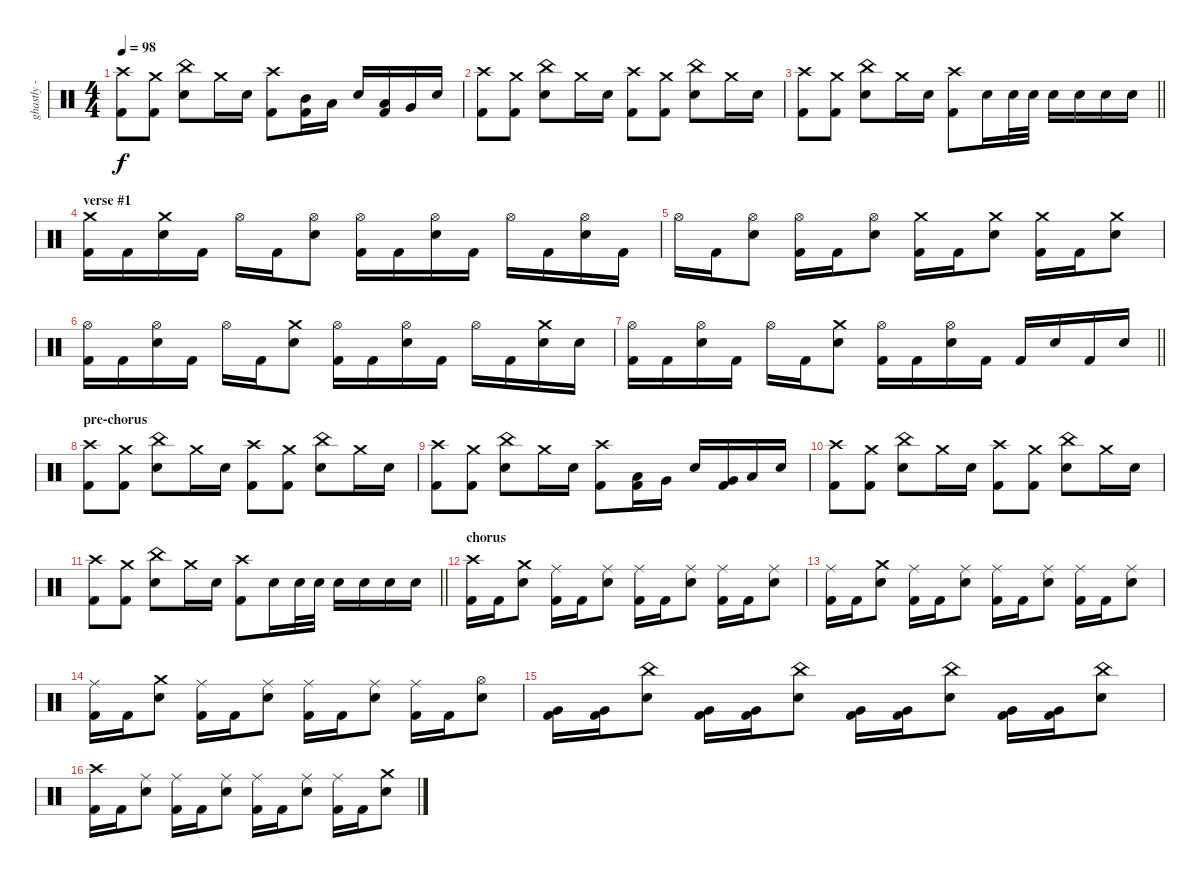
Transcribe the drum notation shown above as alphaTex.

\track ("ghastly - drums" "ghastly - ") {instrument percussion}
\staff {score}
\articulation defaults
\ts (4 4)
\tempo 98
\clef neutral
\ks c
("Crash high (hit)" "Kick (hit) 2").8{dy f} ("Crash medium (hit)" "Kick (hit) 2").8 ("China (hit)" "Electric Snare (hit)").8 "Crash medium (hit)".16 "Electric Snare (hit)".16 ("Crash high (hit)" "Kick (hit) 2").8 ("Mid Tom (hit)" "Kick (hit) 2").16 "Low Tom (hit)".16 "Electric Snare (hit)".16 ("Low Tom (hit)" "Kick (hit) 2").16 "Very Low Tom (hit)".16 "Electric Snare (hit)".16 |
("Crash high (hit)" "Kick (hit) 2").8 ("Crash medium (hit)" "Kick (hit) 2").8 ("China (hit)" "Electric Snare (hit)").8 "Crash medium (hit)".16 "Electric Snare (hit)".16 ("Crash high (hit)" "Kick (hit) 2").8 ("Crash medium (hit)" "Kick (hit) 2").8 ("China (hit)" "Electric Snare (hit)").8 "Crash medium (hit)".16 "Electric Snare (hit)".16 |
\barLineRight lightlight
("Crash high (hit)" "Kick (hit) 2").8 ("Crash medium (hit)" "Kick (hit) 2").8 ("China (hit)" "Electric Snare (hit)").8 "Crash medium (hit)".16 "Electric Snare (hit)".16 ("Crash high (hit)" "Kick (hit) 2").8 "Electric Snare (hit)".16 "Electric Snare (hit)".32 "Electric Snare (hit)".32 "Electric Snare (hit)".16 "Electric Snare (hit)".16 "Electric Snare (hit)".16 "Electric Snare (hit)".16 |
\section ("" "verse #1")
("Crash medium (hit)" "Kick (hit) 2").16 "Kick (hit) 2".16 ("Crash medium (hit)" "Electric Snare (hit)").16 "Kick (hit) 2".16 "Hi-Hat (open)".16 "Kick (hit) 2".16 ("Hi-Hat (open)" "Electric Snare (hit)").8 ("Hi-Hat (open)" "Kick (hit) 2").16 "Kick (hit) 2".16 ("Hi-Hat (open)" "Electric Snare (hit)").16 "Kick (hit) 2".16 "Hi-Hat (open)".16 "Kick (hit) 2".16 ("Hi-Hat (open)" "Electric Snare (hit)").16 "Kick (hit) 2".16 |
"Hi-Hat (open)".16 "Kick (hit) 2".16 ("Hi-Hat (open)" "Electric Snare (hit)").8 ("Hi-Hat (open)" "Kick (hit) 2").16 "Kick (hit) 2".16 ("Hi-Hat (open)" "Electric Snare (hit)").8 ("Crash medium (hit)" "Kick (hit) 2").16 "Kick (hit) 2".16 ("Crash medium (hit)" "Electric Snare (hit)").8 ("Crash medium (hit)" "Kick (hit) 2").16 "Kick (hit) 2".16 ("Crash medium (hit)" "Electric Snare (hit)").8 |
("Hi-Hat (open)" "Kick (hit) 2").16 "Kick (hit) 2".16 ("Hi-Hat (open)" "Electric Snare (hit)").16 "Kick (hit) 2".16 "Hi-Hat (open)".16 "Kick (hit) 2".16 ("Crash medium (hit)" "Electric Snare (hit)").8 ("Hi-Hat (open)" "Kick (hit) 2").16 "Kick (hit) 2".16 ("Hi-Hat (open)" "Electric Snare (hit)").16 "Kick (hit) 2".16 "Hi-Hat (open)".16 "Kick (hit) 2".16 ("Crash medium (hit)" "Electric Snare (hit)").16 "Electric Snare (hit)".16 |
\barLineRight lightlight
("Hi-Hat (open)" "Kick (hit) 2").16 "Kick (hit) 2".16 ("Hi-Hat (open)" "Electric Snare (hit)").16 "Kick (hit) 2".16 "Hi-Hat (open)".16 "Kick (hit) 2".16 ("Crash medium (hit)" "Electric Snare (hit)").8 ("Hi-Hat (open)" "Kick (hit) 2").16 "Kick (hit) 2".16 ("Hi-Hat (open)" "Electric Snare (hit)").16 "Kick (hit) 2".16 "Kick (hit) 2".16 "Electric Snare (hit)".16 "Kick (hit) 2".16 "Electric Snare (hit)".16 |
\section ("" "pre-chorus")
("Crash high (hit)" "Kick (hit) 2").8 ("Crash medium (hit)" "Kick (hit) 2").8 ("China (hit)" "Electric Snare (hit)").8 "Crash medium (hit)".16 "Electric Snare (hit)".16 ("Crash high (hit)" "Kick (hit) 2").8 ("Crash medium (hit)" "Kick (hit) 2").8 ("China (hit)" "Electric Snare (hit)").8 "Crash medium (hit)".16 "Electric Snare (hit)".16 |
("Crash high (hit)" "Kick (hit) 2").8 ("Crash medium (hit)" "Kick (hit) 2").8 ("China (hit)" "Electric Snare (hit)").8 "Crash medium (hit)".16 "Electric Snare (hit)".16 ("Crash high (hit)" "Kick (hit) 2").8 ("Low Tom (hit)" "Kick (hit) 2").16 "Very Low Tom (hit)".16 "Electric Snare (hit)".16 ("Very Low Tom (hit)" "Kick (hit) 2").16 "Low Floor Tom (hit)".16 "Electric Snare (hit)".16 |
("Crash high (hit)" "Kick (hit) 2").8 ("Crash medium (hit)" "Kick (hit) 2").8 ("China (hit)" "Electric Snare (hit)").8 "Crash medium (hit)".16 "Electric Snare (hit)".16 ("Crash high (hit)" "Kick (hit) 2").8 ("Crash medium (hit)" "Kick (hit) 2").8 ("China (hit)" "Electric Snare (hit)").8 "Crash medium (hit)".16 "Electric Snare (hit)".16 |
\barLineRight lightlight
("Crash high (hit)" "Kick (hit) 2").8 ("Crash medium (hit)" "Kick (hit) 2").8 ("China (hit)" "Electric Snare (hit)").8 "Crash medium (hit)".16 "Electric Snare (hit)".16 ("Crash high (hit)" "Kick (hit) 2").8 "Electric Snare (hit)".16 "Electric Snare (hit)".32 "Electric Snare (hit)".32 "Electric Snare (hit)".16 "Electric Snare (hit)".16 "Electric Snare (hit)".16 "Electric Snare (hit)".16 |
\section ("" "chorus")
("Crash high (hit)" "Kick (hit) 2").16 "Kick (hit) 2".16 ("Crash medium (hit)" "Electric Snare (hit)").8 ("Ride (middle)" "Kick (hit) 2").16 "Kick (hit) 2".16 ("Ride (middle)" "Electric Snare (hit)").8 ("Ride (middle)" "Kick (hit) 2").16 "Kick (hit) 2".16 ("Ride (middle)" "Electric Snare (hit)").8 ("Ride (middle)" "Kick (hit) 2").16 "Kick (hit) 2".16 ("Ride (middle)" "Electric Snare (hit)").8 |
("Ride (middle)" "Kick (hit) 2").16 "Kick (hit) 2".16 ("Crash medium (hit)" "Electric Snare (hit)").8 ("Ride (middle)" "Kick (hit) 2").16 "Kick (hit) 2".16 ("Ride (middle)" "Electric Snare (hit)").8 ("Ride (middle)" "Kick (hit) 2").16 "Kick (hit) 2".16 ("Ride (middle)" "Electric Snare (hit)").8 ("Ride (middle)" "Kick (hit) 2").16 "Kick (hit) 2".16 ("Ride (middle)" "Electric Snare (hit)").8 |
("Ride (middle)" "Kick (hit) 2").16 "Kick (hit) 2".16 ("Crash medium (hit)" "Electric Snare (hit)").8 ("Ride (middle)" "Kick (hit) 2").16 "Kick (hit) 2".16 ("Ride (middle)" "Electric Snare (hit)").8 ("Ride (middle)" "Kick (hit) 2").16 "Kick (hit) 2".16 ("Ride (middle)" "Electric Snare (hit)").8 ("Ride (middle)" "Kick (hit) 2").16 "Kick (hit) 2".16 ("Hi-Hat (open)" "Electric Snare (hit)").8 |
("Very Low Tom (hit)" "Kick (hit) 2").16 ("Very Low Tom (hit)" "Kick (hit) 2").16 ("China (hit)" "Electric Snare (hit)").8 ("Very Low Tom (hit)" "Kick (hit) 2").16 ("Very Low Tom (hit)" "Kick (hit) 2").16 ("China (hit)" "Electric Snare (hit)").8 ("Very Low Tom (hit)" "Kick (hit) 2").16 ("Very Low Tom (hit)" "Kick (hit) 2").16 ("China (hit)" "Electric Snare (hit)").8 ("Very Low Tom (hit)" "Kick (hit) 2").16 ("Very Low Tom (hit)" "Kick (hit) 2").16 ("China (hit)" "Electric Snare (hit)").8 |
("Crash high (hit)" "Kick (hit) 2").16 "Kick (hit) 2".16 ("Ride (middle)" "Electric Snare (hit)").8 ("Ride (middle)" "Kick (hit) 2").16 "Kick (hit) 2".16 ("Ride (middle)" "Electric Snare (hit)").8 ("Ride (middle)" "Kick (hit) 2").16 "Kick (hit) 2".16 ("Ride (middle)" "Electric Snare (hit)").8 ("Ride (middle)" "Kick (hit) 2").16 "Kick (hit) 2".16 ("Crash medium (hit)" "Electric Snare (hit)").8
